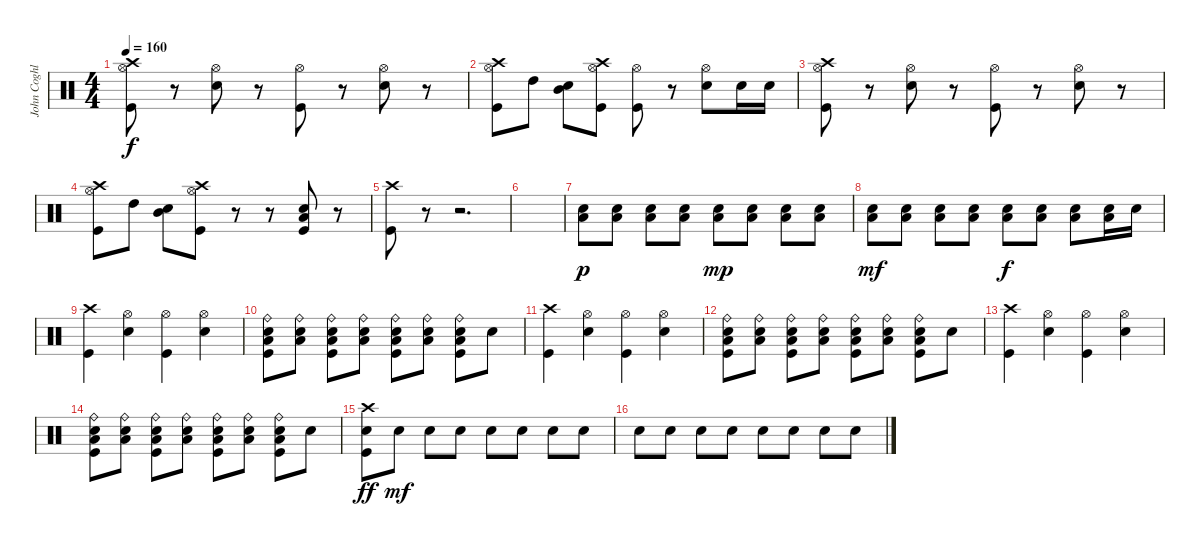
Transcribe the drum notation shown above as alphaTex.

\track ("John Coghlan" "John Coghl") {instrument percussion}
\staff {score}
\articulation defaults
\ts (4 4)
\tempo 160
\clef neutral
\ks c
("Crash high (hit)" "Hi-Hat (open)" "Kick (hit)").8{dy f} r.8 ("Hi-Hat (open)" "Electric Snare (hit)").8 r.8 ("Hi-Hat (open)" "Kick (hit)").8 r.8 ("Hi-Hat (open)" "Electric Snare (hit)").8 r.8 |
("Crash high (hit)" "Hi-Hat (open)" "Kick (hit)").8 "High Tom (hit)".8 ("Mid Tom (hit)" "Electric Snare (hit)").8 ("Crash high (hit)" "Hi-Hat (open)" "Kick (hit)").8 ("Hi-Hat (open)" "Kick (hit)").8 r.8 ("Hi-Hat (open)" "Electric Snare (hit)").8 "Electric Snare (hit)".16 "Electric Snare (hit)".16 |
("Crash high (hit)" "Hi-Hat (open)" "Kick (hit)").8 r.8 ("Hi-Hat (open)" "Electric Snare (hit)").8 r.8 ("Hi-Hat (open)" "Kick (hit)").8 r.8 ("Hi-Hat (open)" "Electric Snare (hit)").8 r.8 |
("Crash high (hit)" "Hi-Hat (open)" "Kick (hit)").8 "High Tom (hit)".8 ("Mid Tom (hit)" "Electric Snare (hit)").8 ("Crash high (hit)" "Hi-Hat (open)" "Kick (hit)").8 r.8 r.8 ("Low Floor Tom (hit)" "Electric Snare (hit)" "Kick (hit)").8 r.8 |
("Crash high (hit)" "Kick (hit)").8 r.8 r.2{d} |
|
("Low Floor Tom (hit)" "Electric Snare (hit)").8{dy p} ("Low Floor Tom (hit)" "Electric Snare (hit)").8 ("Low Floor Tom (hit)" "Electric Snare (hit)").8 ("Low Floor Tom (hit)" "Electric Snare (hit)").8 ("Low Floor Tom (hit)" "Electric Snare (hit)").8{dy mp} ("Low Floor Tom (hit)" "Electric Snare (hit)").8 ("Low Floor Tom (hit)" "Electric Snare (hit)").8 ("Low Floor Tom (hit)" "Electric Snare (hit)").8 |
("Low Floor Tom (hit)" "Electric Snare (hit)").8{dy mf} ("Low Floor Tom (hit)" "Electric Snare (hit)").8 ("Low Floor Tom (hit)" "Electric Snare (hit)").8 ("Low Floor Tom (hit)" "Electric Snare (hit)").8 ("Low Floor Tom (hit)" "Electric Snare (hit)").8{dy f} ("Low Floor Tom (hit)" "Electric Snare (hit)").8 ("Low Floor Tom (hit)" "Electric Snare (hit)").8 ("Low Floor Tom (hit)" "Electric Snare (hit)").16 "Electric Snare (hit)".16 |
("Crash high (hit)" "Kick (hit)").4 ("Hi-Hat (open)" "Electric Snare (hit)").4 ("Hi-Hat (open)" "Kick (hit)").4 ("Hi-Hat (open)" "Electric Snare (hit)").4 |
("Ride (bell)" "Low Floor Tom (hit)" "Electric Snare (hit)" "Kick (hit)").8 ("Ride (bell)" "Low Floor Tom (hit)" "Electric Snare (hit)").8 ("Ride (bell)" "Low Floor Tom (hit)" "Electric Snare (hit)" "Kick (hit)").8 ("Ride (bell)" "Low Floor Tom (hit)" "Electric Snare (hit)").8 ("Ride (bell)" "Low Floor Tom (hit)" "Electric Snare (hit)" "Kick (hit)").8 ("Ride (bell)" "Low Floor Tom (hit)" "Electric Snare (hit)").8 ("Ride (bell)" "Low Floor Tom (hit)" "Electric Snare (hit)" "Kick (hit)").8 "Electric Snare (hit)".8 |
("Crash high (hit)" "Kick (hit)").4 ("Hi-Hat (open)" "Electric Snare (hit)").4 ("Hi-Hat (open)" "Kick (hit)").4 ("Hi-Hat (open)" "Electric Snare (hit)").4 |
("Ride (bell)" "Low Floor Tom (hit)" "Electric Snare (hit)" "Kick (hit)").8 ("Ride (bell)" "Low Floor Tom (hit)" "Electric Snare (hit)").8 ("Ride (bell)" "Low Floor Tom (hit)" "Electric Snare (hit)" "Kick (hit)").8 ("Ride (bell)" "Low Floor Tom (hit)" "Electric Snare (hit)").8 ("Ride (bell)" "Low Floor Tom (hit)" "Electric Snare (hit)" "Kick (hit)").8 ("Ride (bell)" "Low Floor Tom (hit)" "Electric Snare (hit)").8 ("Ride (bell)" "Low Floor Tom (hit)" "Electric Snare (hit)" "Kick (hit)").8 "Electric Snare (hit)".8 |
("Crash high (hit)" "Kick (hit)").4 ("Hi-Hat (open)" "Electric Snare (hit)").4 ("Hi-Hat (open)" "Kick (hit)").4 ("Hi-Hat (open)" "Electric Snare (hit)").4 |
("Ride (bell)" "Low Floor Tom (hit)" "Electric Snare (hit)" "Kick (hit)").8 ("Ride (bell)" "Low Floor Tom (hit)" "Electric Snare (hit)").8 ("Ride (bell)" "Low Floor Tom (hit)" "Electric Snare (hit)" "Kick (hit)").8 ("Ride (bell)" "Low Floor Tom (hit)" "Electric Snare (hit)").8 ("Ride (bell)" "Low Floor Tom (hit)" "Electric Snare (hit)" "Kick (hit)").8 ("Ride (bell)" "Low Floor Tom (hit)" "Electric Snare (hit)").8 ("Ride (bell)" "Low Floor Tom (hit)" "Electric Snare (hit)" "Kick (hit)").8 "Electric Snare (hit)".8 |
("Crash high (hit)" "Electric Snare (hit)" "Kick (hit)").8{dy ff} "Electric Snare (hit)".8{dy mf} "Electric Snare (hit)".8 "Electric Snare (hit)".8 "Electric Snare (hit)".8 "Electric Snare (hit)".8 "Electric Snare (hit)".8 "Electric Snare (hit)".8 |
"Electric Snare (hit)".8 "Electric Snare (hit)".8 "Electric Snare (hit)".8 "Electric Snare (hit)".8 "Electric Snare (hit)".8 "Electric Snare (hit)".8 "Electric Snare (hit)".8 "Electric Snare (hit)".8
